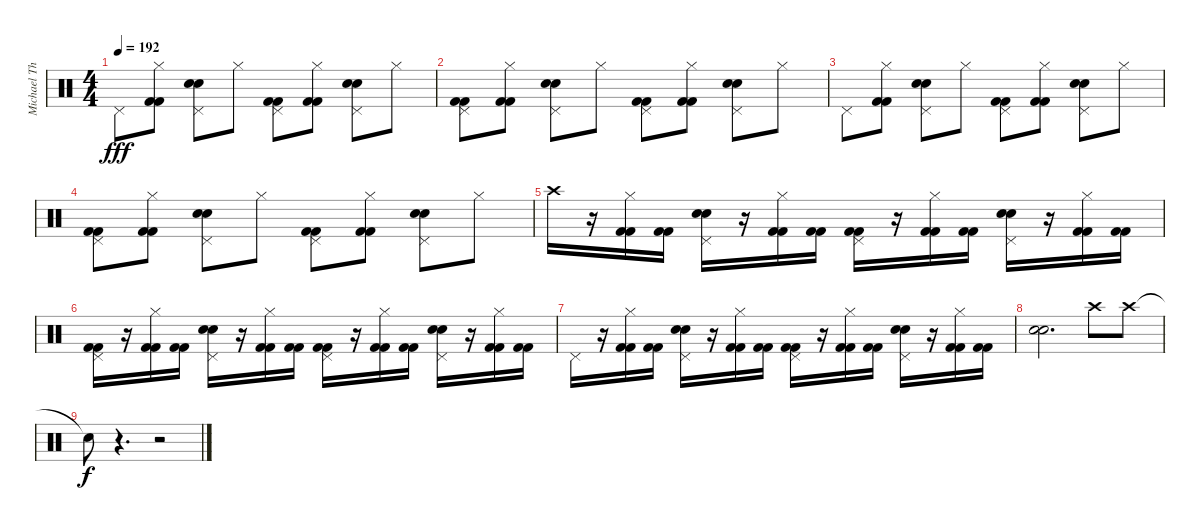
\track ("Michael Thomas" "Michael Th") {instrument percussion}
\staff {score}
\articulation defaults
\ts (4 4)
\tempo 192
\clef neutral
\ks c "Pedal Hi-Hat (hit)".8{dy fff}
("Hi-Hat (closed)" "Kick (hit) 2" "Kick (hit) 2").8 ("Pedal Hi-Hat (hit)" "Snare (hit) 2" "Electric Snare (hit)").8 "Hi-Hat (closed)".8 ("Pedal Hi-Hat (hit)" "Kick (hit) 2" "Kick (hit) 2").8 ("Hi-Hat (closed)" "Kick (hit) 2" "Kick (hit) 2").8 ("Pedal Hi-Hat (hit)" "Snare (hit) 2" "Electric Snare (hit)").8 "Hi-Hat (closed)".8 |
("Pedal Hi-Hat (hit)" "Kick (hit) 2" "Kick (hit) 2").8 ("Hi-Hat (closed)" "Kick (hit) 2" "Kick (hit) 2").8 ("Pedal Hi-Hat (hit)" "Snare (hit) 2" "Electric Snare (hit)").8 "Hi-Hat (closed)".8 ("Pedal Hi-Hat (hit)" "Kick (hit) 2" "Kick (hit) 2").8 ("Hi-Hat (closed)" "Kick (hit) 2" "Kick (hit) 2").8 ("Pedal Hi-Hat (hit)" "Snare (hit) 2" "Electric Snare (hit)").8 "Hi-Hat (closed)".8 |
"Pedal Hi-Hat (hit)".8 ("Hi-Hat (closed)" "Kick (hit) 2" "Kick (hit) 2").8 ("Pedal Hi-Hat (hit)" "Snare (hit) 2" "Electric Snare (hit)").8 "Hi-Hat (closed)".8 ("Pedal Hi-Hat (hit)" "Kick (hit) 2" "Kick (hit) 2").8 ("Hi-Hat (closed)" "Kick (hit) 2" "Kick (hit) 2").8 ("Pedal Hi-Hat (hit)" "Snare (hit) 2" "Electric Snare (hit)").8 "Hi-Hat (closed)".8 |
("Pedal Hi-Hat (hit)" "Kick (hit) 2" "Kick (hit) 2").8 ("Hi-Hat (closed)" "Kick (hit) 2" "Kick (hit) 2").8 ("Pedal Hi-Hat (hit)" "Snare (hit) 2" "Electric Snare (hit)").8 "Hi-Hat (closed)".8 ("Pedal Hi-Hat (hit)" "Kick (hit) 2" "Kick (hit) 2").8 ("Hi-Hat (closed)" "Kick (hit) 2" "Kick (hit) 2").8 ("Pedal Hi-Hat (hit)" "Snare (hit) 2" "Electric Snare (hit)").8 "Hi-Hat (closed)".8 |
"Crash high (hit)".16 r.16 ("Hi-Hat (closed)" "Kick (hit) 2" "Kick (hit) 2").16 ("Kick (hit) 2" "Kick (hit) 2").16 ("Pedal Hi-Hat (hit)" "Snare (hit) 2" "Electric Snare (hit)").16 r.16 ("Hi-Hat (closed)" "Kick (hit) 2" "Kick (hit) 2").16 ("Kick (hit) 2" "Kick (hit) 2").16 ("Pedal Hi-Hat (hit)" "Kick (hit) 2" "Kick (hit) 2").16 r.16 ("Hi-Hat (closed)" "Kick (hit) 2" "Kick (hit) 2").16 ("Kick (hit) 2" "Kick (hit) 2").16 ("Pedal Hi-Hat (hit)" "Snare (hit) 2" "Electric Snare (hit)").16 r.16 ("Hi-Hat (closed)" "Kick (hit) 2" "Kick (hit) 2").16 ("Kick (hit) 2" "Kick (hit) 2").16 |
("Pedal Hi-Hat (hit)" "Kick (hit) 2" "Kick (hit) 2").16 r.16 ("Hi-Hat (closed)" "Kick (hit) 2" "Kick (hit) 2").16 ("Kick (hit) 2" "Kick (hit) 2").16 ("Pedal Hi-Hat (hit)" "Snare (hit) 2" "Electric Snare (hit)").16 r.16 ("Hi-Hat (closed)" "Kick (hit) 2" "Kick (hit) 2").16 ("Kick (hit) 2" "Kick (hit) 2").16 ("Pedal Hi-Hat (hit)" "Kick (hit) 2" "Kick (hit) 2").16 r.16 ("Hi-Hat (closed)" "Kick (hit) 2" "Kick (hit) 2").16 ("Kick (hit) 2" "Kick (hit) 2").16 ("Pedal Hi-Hat (hit)" "Snare (hit) 2" "Electric Snare (hit)").16 r.16 ("Hi-Hat (closed)" "Kick (hit) 2" "Kick (hit) 2").16 ("Kick (hit) 2" "Kick (hit) 2").16 |
"Pedal Hi-Hat (hit)".16 r.16 ("Hi-Hat (closed)" "Kick (hit) 2" "Kick (hit) 2").16 ("Kick (hit) 2" "Kick (hit) 2").16 ("Pedal Hi-Hat (hit)" "Snare (hit) 2" "Electric Snare (hit)").16 r.16 ("Hi-Hat (closed)" "Kick (hit) 2" "Kick (hit) 2").16 ("Kick (hit) 2" "Kick (hit) 2").16 ("Pedal Hi-Hat (hit)" "Kick (hit) 2" "Kick (hit) 2").16 r.16 ("Hi-Hat (closed)" "Kick (hit) 2" "Kick (hit) 2").16 ("Kick (hit) 2" "Kick (hit) 2").16 ("Pedal Hi-Hat (hit)" "Snare (hit) 2" "Electric Snare (hit)").16 r.16 ("Hi-Hat (closed)" "Kick (hit) 2" "Kick (hit) 2").16 ("Kick (hit) 2" "Kick (hit) 2").16 |
("Snare (hit) 2" "Electric Snare (hit)").2{d} "Crash high (hit)".8 "Crash high (hit)".8 |
"Snare (hit)"{t}.8{dy f} r.4{d} r.2
